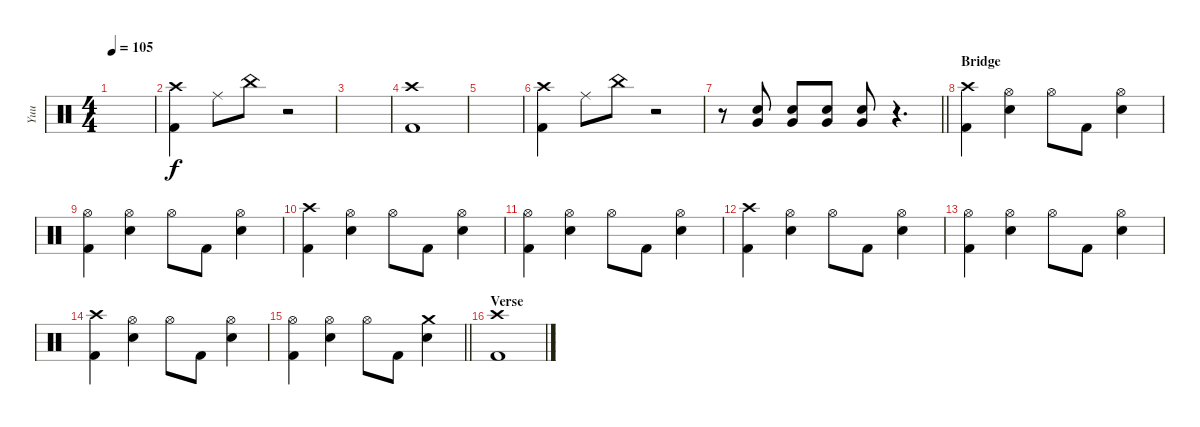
\track ("Yuu" "Yuu") {instrument percussion}
\staff {score}
\articulation defaults
\ts (4 4)
\tempo 105
\clef neutral
\ks c
|
("Crash high (hit)" "Kick (hit) 2").4 "Ride (middle)".8 "China (hit)".8 r.2 |
|
("Crash high (hit)" "Kick (hit) 2").1 |
|
("Crash high (hit)" "Kick (hit) 2").4 "Ride (middle)".8 "China (hit)".8 r.2 |
\barLineRight lightlight
r.8 ("Electric Snare (hit)" "Very Low Tom (hit)").8 ("Electric Snare (hit)" "Very Low Tom (hit)").8 ("Electric Snare (hit)" "Very Low Tom (hit)").8 ("Electric Snare (hit)" "Very Low Tom (hit)").8 r.4{d} |
\section ("" "Bridge")
("Crash high (hit)" "Kick (hit) 2").4 ("Hi-Hat (open)" "Electric Snare (hit)").4 "Hi-Hat (open)".8 "Kick (hit) 2".8 ("Hi-Hat (open)" "Electric Snare (hit)").4 |
("Hi-Hat (open)" "Kick (hit) 2").4 ("Hi-Hat (open)" "Electric Snare (hit)").4 "Hi-Hat (open)".8 "Kick (hit) 2".8 ("Hi-Hat (open)" "Electric Snare (hit)").4 |
("Crash high (hit)" "Kick (hit) 2").4 ("Hi-Hat (open)" "Electric Snare (hit)").4 "Hi-Hat (open)".8 "Kick (hit) 2".8 ("Hi-Hat (open)" "Electric Snare (hit)").4 |
("Hi-Hat (open)" "Kick (hit) 2").4 ("Hi-Hat (open)" "Electric Snare (hit)").4 "Hi-Hat (open)".8 "Kick (hit) 2".8 ("Hi-Hat (open)" "Electric Snare (hit)").4 |
("Crash high (hit)" "Kick (hit) 2").4 ("Hi-Hat (open)" "Electric Snare (hit)").4 "Hi-Hat (open)".8 "Kick (hit) 2".8 ("Hi-Hat (open)" "Electric Snare (hit)").4 |
("Hi-Hat (open)" "Kick (hit) 2").4 ("Hi-Hat (open)" "Electric Snare (hit)").4 "Hi-Hat (open)".8 "Kick (hit) 2".8 ("Hi-Hat (open)" "Electric Snare (hit)").4 |
("Crash high (hit)" "Kick (hit) 2").4 ("Hi-Hat (open)" "Electric Snare (hit)").4 "Hi-Hat (open)".8 "Kick (hit) 2".8 ("Hi-Hat (open)" "Electric Snare (hit)").4 |
\barLineRight lightlight
("Hi-Hat (open)" "Kick (hit) 2").4 ("Hi-Hat (open)" "Electric Snare (hit)").4 "Hi-Hat (open)".8 "Kick (hit) 2".8 ("Crash medium (hit)" "Electric Snare (hit)").4 |
\section ("" "Verse")
("Crash high (hit)" "Kick (hit) 2").1
